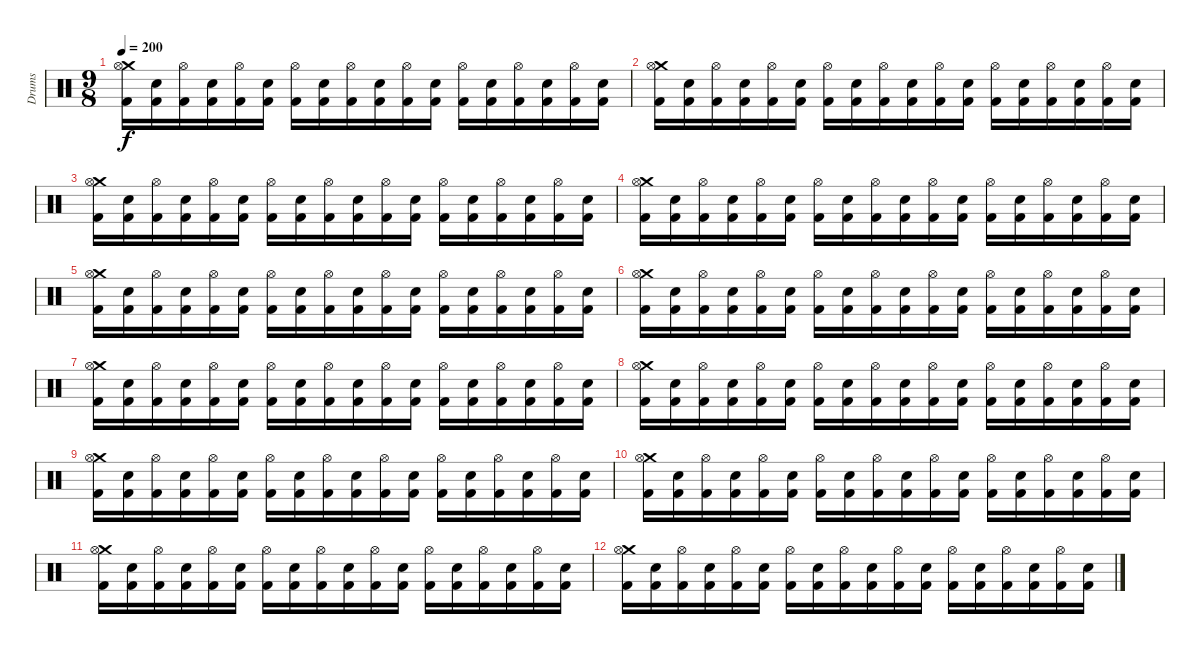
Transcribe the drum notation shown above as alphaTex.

\track ("Drums" "Drums") {instrument percussion}
\staff {score}
\articulation defaults
\ts (9 8)
\tempo 200
\clef neutral
\ks c
("Crash medium (hit)" "Hi-Hat (open)" "Kick (hit) 2").16{dy f volume 0} ("Electric Snare (hit)" "Kick (hit) 2").16 ("Hi-Hat (open)" "Kick (hit) 2").16 ("Electric Snare (hit)" "Kick (hit) 2").16 ("Hi-Hat (open)" "Kick (hit) 2").16 ("Electric Snare (hit)" "Kick (hit) 2").16 ("Hi-Hat (open)" "Kick (hit) 2").16 ("Electric Snare (hit)" "Kick (hit) 2").16 ("Hi-Hat (open)" "Kick (hit) 2").16 ("Electric Snare (hit)" "Kick (hit) 2").16 ("Hi-Hat (open)" "Kick (hit) 2").16 ("Electric Snare (hit)" "Kick (hit) 2").16 ("Hi-Hat (open)" "Kick (hit) 2").16 ("Electric Snare (hit)" "Kick (hit) 2").16 ("Hi-Hat (open)" "Kick (hit) 2").16 ("Electric Snare (hit)" "Kick (hit) 2").16 ("Hi-Hat (open)" "Kick (hit) 2").16 ("Electric Snare (hit)" "Kick (hit) 2").16 |
("Crash medium (hit)" "Hi-Hat (open)" "Kick (hit) 2").16 ("Electric Snare (hit)" "Kick (hit) 2").16 ("Hi-Hat (open)" "Kick (hit) 2").16 ("Electric Snare (hit)" "Kick (hit) 2").16 ("Hi-Hat (open)" "Kick (hit) 2").16 ("Electric Snare (hit)" "Kick (hit) 2").16 ("Hi-Hat (open)" "Kick (hit) 2").16 ("Electric Snare (hit)" "Kick (hit) 2").16 ("Hi-Hat (open)" "Kick (hit) 2").16 ("Electric Snare (hit)" "Kick (hit) 2").16 ("Hi-Hat (open)" "Kick (hit) 2").16 ("Electric Snare (hit)" "Kick (hit) 2").16 ("Hi-Hat (open)" "Kick (hit) 2").16 ("Electric Snare (hit)" "Kick (hit) 2").16 ("Hi-Hat (open)" "Kick (hit) 2").16 ("Electric Snare (hit)" "Kick (hit) 2").16 ("Hi-Hat (open)" "Kick (hit) 2").16 ("Electric Snare (hit)" "Kick (hit) 2").16 |
("Crash medium (hit)" "Hi-Hat (open)" "Kick (hit) 2").16 ("Electric Snare (hit)" "Kick (hit) 2").16 ("Hi-Hat (open)" "Kick (hit) 2").16 ("Electric Snare (hit)" "Kick (hit) 2").16 ("Hi-Hat (open)" "Kick (hit) 2").16 ("Electric Snare (hit)" "Kick (hit) 2").16 ("Hi-Hat (open)" "Kick (hit) 2").16 ("Electric Snare (hit)" "Kick (hit) 2").16 ("Hi-Hat (open)" "Kick (hit) 2").16 ("Electric Snare (hit)" "Kick (hit) 2").16 ("Hi-Hat (open)" "Kick (hit) 2").16 ("Electric Snare (hit)" "Kick (hit) 2").16 ("Hi-Hat (open)" "Kick (hit) 2").16 ("Electric Snare (hit)" "Kick (hit) 2").16 ("Hi-Hat (open)" "Kick (hit) 2").16 ("Electric Snare (hit)" "Kick (hit) 2").16 ("Hi-Hat (open)" "Kick (hit) 2").16 ("Electric Snare (hit)" "Kick (hit) 2").16 |
("Crash medium (hit)" "Hi-Hat (open)" "Kick (hit) 2").16 ("Electric Snare (hit)" "Kick (hit) 2").16 ("Hi-Hat (open)" "Kick (hit) 2").16 ("Electric Snare (hit)" "Kick (hit) 2").16 ("Hi-Hat (open)" "Kick (hit) 2").16 ("Electric Snare (hit)" "Kick (hit) 2").16 ("Hi-Hat (open)" "Kick (hit) 2").16 ("Electric Snare (hit)" "Kick (hit) 2").16 ("Hi-Hat (open)" "Kick (hit) 2").16 ("Electric Snare (hit)" "Kick (hit) 2").16 ("Hi-Hat (open)" "Kick (hit) 2").16 ("Electric Snare (hit)" "Kick (hit) 2").16 ("Hi-Hat (open)" "Kick (hit) 2").16 ("Electric Snare (hit)" "Kick (hit) 2").16 ("Hi-Hat (open)" "Kick (hit) 2").16 ("Electric Snare (hit)" "Kick (hit) 2").16 ("Hi-Hat (open)" "Kick (hit) 2").16 ("Electric Snare (hit)" "Kick (hit) 2").16 |
("Crash medium (hit)" "Hi-Hat (open)" "Kick (hit) 2").16 ("Electric Snare (hit)" "Kick (hit) 2").16 ("Hi-Hat (open)" "Kick (hit) 2").16 ("Electric Snare (hit)" "Kick (hit) 2").16 ("Hi-Hat (open)" "Kick (hit) 2").16 ("Electric Snare (hit)" "Kick (hit) 2").16 ("Hi-Hat (open)" "Kick (hit) 2").16 ("Electric Snare (hit)" "Kick (hit) 2").16 ("Hi-Hat (open)" "Kick (hit) 2").16 ("Electric Snare (hit)" "Kick (hit) 2").16 ("Hi-Hat (open)" "Kick (hit) 2").16 ("Electric Snare (hit)" "Kick (hit) 2").16 ("Hi-Hat (open)" "Kick (hit) 2").16 ("Electric Snare (hit)" "Kick (hit) 2").16 ("Hi-Hat (open)" "Kick (hit) 2").16 ("Electric Snare (hit)" "Kick (hit) 2").16 ("Hi-Hat (open)" "Kick (hit) 2").16 ("Electric Snare (hit)" "Kick (hit) 2").16 |
("Crash medium (hit)" "Hi-Hat (open)" "Kick (hit) 2").16 ("Electric Snare (hit)" "Kick (hit) 2").16 ("Hi-Hat (open)" "Kick (hit) 2").16 ("Electric Snare (hit)" "Kick (hit) 2").16 ("Hi-Hat (open)" "Kick (hit) 2").16 ("Electric Snare (hit)" "Kick (hit) 2").16 ("Hi-Hat (open)" "Kick (hit) 2").16 ("Electric Snare (hit)" "Kick (hit) 2").16 ("Hi-Hat (open)" "Kick (hit) 2").16 ("Electric Snare (hit)" "Kick (hit) 2").16 ("Hi-Hat (open)" "Kick (hit) 2").16 ("Electric Snare (hit)" "Kick (hit) 2").16 ("Hi-Hat (open)" "Kick (hit) 2").16 ("Electric Snare (hit)" "Kick (hit) 2").16 ("Hi-Hat (open)" "Kick (hit) 2").16 ("Electric Snare (hit)" "Kick (hit) 2").16 ("Hi-Hat (open)" "Kick (hit) 2").16 ("Electric Snare (hit)" "Kick (hit) 2").16 |
("Crash medium (hit)" "Hi-Hat (open)" "Kick (hit) 2").16 ("Electric Snare (hit)" "Kick (hit) 2").16 ("Hi-Hat (open)" "Kick (hit) 2").16 ("Electric Snare (hit)" "Kick (hit) 2").16 ("Hi-Hat (open)" "Kick (hit) 2").16 ("Electric Snare (hit)" "Kick (hit) 2").16 ("Hi-Hat (open)" "Kick (hit) 2").16 ("Electric Snare (hit)" "Kick (hit) 2").16 ("Hi-Hat (open)" "Kick (hit) 2").16 ("Electric Snare (hit)" "Kick (hit) 2").16 ("Hi-Hat (open)" "Kick (hit) 2").16 ("Electric Snare (hit)" "Kick (hit) 2").16 ("Hi-Hat (open)" "Kick (hit) 2").16 ("Electric Snare (hit)" "Kick (hit) 2").16 ("Hi-Hat (open)" "Kick (hit) 2").16 ("Electric Snare (hit)" "Kick (hit) 2").16 ("Hi-Hat (open)" "Kick (hit) 2").16 ("Electric Snare (hit)" "Kick (hit) 2").16 |
("Crash medium (hit)" "Hi-Hat (open)" "Kick (hit) 2").16 ("Electric Snare (hit)" "Kick (hit) 2").16 ("Hi-Hat (open)" "Kick (hit) 2").16 ("Electric Snare (hit)" "Kick (hit) 2").16 ("Hi-Hat (open)" "Kick (hit) 2").16 ("Electric Snare (hit)" "Kick (hit) 2").16 ("Hi-Hat (open)" "Kick (hit) 2").16 ("Electric Snare (hit)" "Kick (hit) 2").16 ("Hi-Hat (open)" "Kick (hit) 2").16 ("Electric Snare (hit)" "Kick (hit) 2").16 ("Hi-Hat (open)" "Kick (hit) 2").16 ("Electric Snare (hit)" "Kick (hit) 2").16 ("Hi-Hat (open)" "Kick (hit) 2").16 ("Electric Snare (hit)" "Kick (hit) 2").16 ("Hi-Hat (open)" "Kick (hit) 2").16 ("Electric Snare (hit)" "Kick (hit) 2").16 ("Hi-Hat (open)" "Kick (hit) 2").16 ("Electric Snare (hit)" "Kick (hit) 2").16 |
("Crash medium (hit)" "Hi-Hat (open)" "Kick (hit) 2").16 ("Electric Snare (hit)" "Kick (hit) 2").16 ("Hi-Hat (open)" "Kick (hit) 2").16 ("Electric Snare (hit)" "Kick (hit) 2").16 ("Hi-Hat (open)" "Kick (hit) 2").16 ("Electric Snare (hit)" "Kick (hit) 2").16 ("Hi-Hat (open)" "Kick (hit) 2").16 ("Electric Snare (hit)" "Kick (hit) 2").16 ("Hi-Hat (open)" "Kick (hit) 2").16 ("Electric Snare (hit)" "Kick (hit) 2").16 ("Hi-Hat (open)" "Kick (hit) 2").16 ("Electric Snare (hit)" "Kick (hit) 2").16 ("Hi-Hat (open)" "Kick (hit) 2").16 ("Electric Snare (hit)" "Kick (hit) 2").16 ("Hi-Hat (open)" "Kick (hit) 2").16 ("Electric Snare (hit)" "Kick (hit) 2").16 ("Hi-Hat (open)" "Kick (hit) 2").16 ("Electric Snare (hit)" "Kick (hit) 2").16 |
("Crash medium (hit)" "Hi-Hat (open)" "Kick (hit) 2").16 ("Electric Snare (hit)" "Kick (hit) 2").16 ("Hi-Hat (open)" "Kick (hit) 2").16 ("Electric Snare (hit)" "Kick (hit) 2").16 ("Hi-Hat (open)" "Kick (hit) 2").16 ("Electric Snare (hit)" "Kick (hit) 2").16 ("Hi-Hat (open)" "Kick (hit) 2").16 ("Electric Snare (hit)" "Kick (hit) 2").16 ("Hi-Hat (open)" "Kick (hit) 2").16 ("Electric Snare (hit)" "Kick (hit) 2").16 ("Hi-Hat (open)" "Kick (hit) 2").16 ("Electric Snare (hit)" "Kick (hit) 2").16 ("Hi-Hat (open)" "Kick (hit) 2").16 ("Electric Snare (hit)" "Kick (hit) 2").16 ("Hi-Hat (open)" "Kick (hit) 2").16 ("Electric Snare (hit)" "Kick (hit) 2").16 ("Hi-Hat (open)" "Kick (hit) 2").16 ("Electric Snare (hit)" "Kick (hit) 2").16 |
("Crash medium (hit)" "Hi-Hat (open)" "Kick (hit) 2").16 ("Electric Snare (hit)" "Kick (hit) 2").16 ("Hi-Hat (open)" "Kick (hit) 2").16 ("Electric Snare (hit)" "Kick (hit) 2").16 ("Hi-Hat (open)" "Kick (hit) 2").16 ("Electric Snare (hit)" "Kick (hit) 2").16 ("Hi-Hat (open)" "Kick (hit) 2").16 ("Electric Snare (hit)" "Kick (hit) 2").16 ("Hi-Hat (open)" "Kick (hit) 2").16 ("Electric Snare (hit)" "Kick (hit) 2").16 ("Hi-Hat (open)" "Kick (hit) 2").16 ("Electric Snare (hit)" "Kick (hit) 2").16 ("Hi-Hat (open)" "Kick (hit) 2").16 ("Electric Snare (hit)" "Kick (hit) 2").16 ("Hi-Hat (open)" "Kick (hit) 2").16 ("Electric Snare (hit)" "Kick (hit) 2").16 ("Hi-Hat (open)" "Kick (hit) 2").16 ("Electric Snare (hit)" "Kick (hit) 2").16 |
("Crash medium (hit)" "Hi-Hat (open)" "Kick (hit) 2").16 ("Electric Snare (hit)" "Kick (hit) 2").16 ("Hi-Hat (open)" "Kick (hit) 2").16 ("Electric Snare (hit)" "Kick (hit) 2").16 ("Hi-Hat (open)" "Kick (hit) 2").16 ("Electric Snare (hit)" "Kick (hit) 2").16 ("Hi-Hat (open)" "Kick (hit) 2").16 ("Electric Snare (hit)" "Kick (hit) 2").16 ("Hi-Hat (open)" "Kick (hit) 2").16 ("Electric Snare (hit)" "Kick (hit) 2").16 ("Hi-Hat (open)" "Kick (hit) 2").16 ("Electric Snare (hit)" "Kick (hit) 2").16 ("Hi-Hat (open)" "Kick (hit) 2").16 ("Electric Snare (hit)" "Kick (hit) 2").16 ("Hi-Hat (open)" "Kick (hit) 2").16 ("Electric Snare (hit)" "Kick (hit) 2").16 ("Hi-Hat (open)" "Kick (hit) 2").16 ("Electric Snare (hit)" "Kick (hit) 2").16
